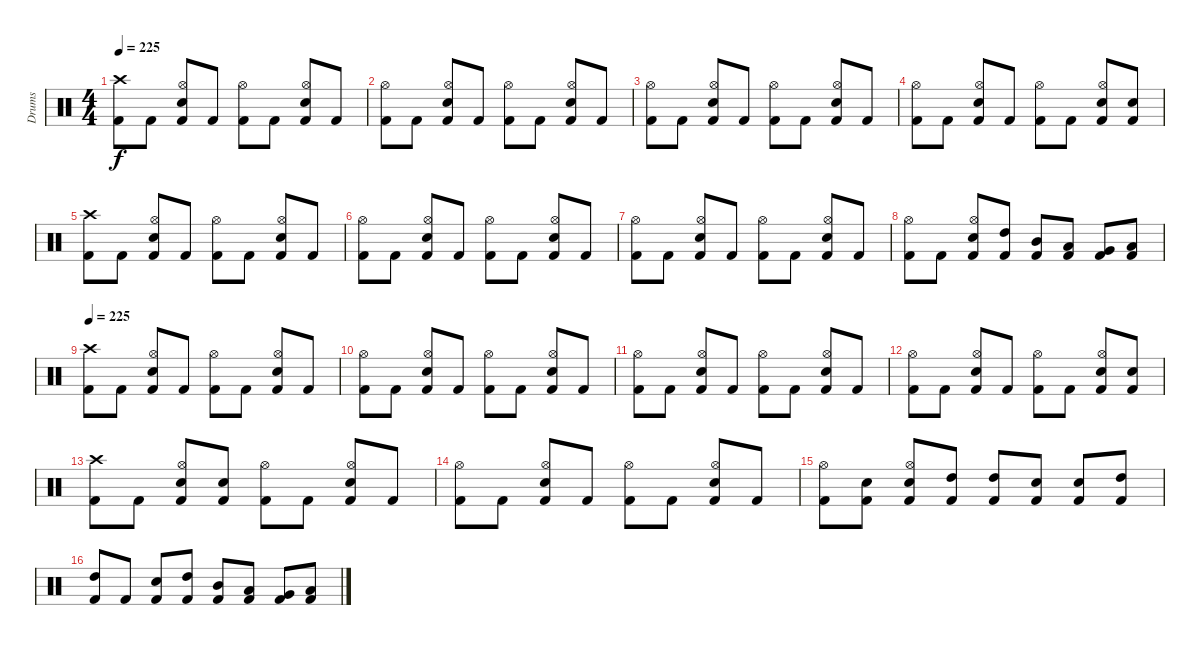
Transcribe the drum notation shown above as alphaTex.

\track ("Drums" "Drums") {instrument percussion}
\staff {score}
\articulation defaults
\ts (4 4)
\tempo 225
\clef neutral
\ks c
("Crash high (hit)" "Kick (hit) 2").8{dy f} "Kick (hit) 2".8 ("Hi-Hat (open)" "Electric Snare (hit)" "Kick (hit) 2").8 "Kick (hit) 2".8 ("Hi-Hat (open)" "Kick (hit) 2").8 "Kick (hit) 2".8 ("Hi-Hat (open)" "Electric Snare (hit)" "Kick (hit) 2").8 "Kick (hit) 2".8 |
("Hi-Hat (open)" "Kick (hit) 2").8 "Kick (hit) 2".8 ("Hi-Hat (open)" "Electric Snare (hit)" "Kick (hit) 2").8 "Kick (hit) 2".8 ("Hi-Hat (open)" "Kick (hit) 2").8 "Kick (hit) 2".8 ("Hi-Hat (open)" "Electric Snare (hit)" "Kick (hit) 2").8 "Kick (hit) 2".8 |
("Hi-Hat (open)" "Kick (hit) 2").8 "Kick (hit) 2".8 ("Hi-Hat (open)" "Electric Snare (hit)" "Kick (hit) 2").8 "Kick (hit) 2".8 ("Hi-Hat (open)" "Kick (hit) 2").8 "Kick (hit) 2".8 ("Hi-Hat (open)" "Electric Snare (hit)" "Kick (hit) 2").8 "Kick (hit) 2".8 |
("Hi-Hat (open)" "Kick (hit) 2").8 "Kick (hit) 2".8 ("Hi-Hat (open)" "Electric Snare (hit)" "Kick (hit) 2").8 "Kick (hit) 2".8 ("Hi-Hat (open)" "Kick (hit) 2").8 "Kick (hit) 2".8 ("Hi-Hat (open)" "Electric Snare (hit)" "Kick (hit) 2").8 ("Electric Snare (hit)" "Kick (hit) 2").8 |
("Crash high (hit)" "Kick (hit) 2").8 "Kick (hit) 2".8 ("Hi-Hat (open)" "Electric Snare (hit)" "Kick (hit) 2").8 "Kick (hit) 2".8 ("Hi-Hat (open)" "Kick (hit) 2").8 "Kick (hit) 2".8 ("Hi-Hat (open)" "Electric Snare (hit)" "Kick (hit) 2").8 "Kick (hit) 2".8 |
("Hi-Hat (open)" "Kick (hit) 2").8 "Kick (hit) 2".8 ("Hi-Hat (open)" "Electric Snare (hit)" "Kick (hit) 2").8 "Kick (hit) 2".8 ("Hi-Hat (open)" "Kick (hit) 2").8 "Kick (hit) 2".8 ("Hi-Hat (open)" "Electric Snare (hit)" "Kick (hit) 2").8 "Kick (hit) 2".8 |
("Hi-Hat (open)" "Kick (hit) 2").8 "Kick (hit) 2".8 ("Hi-Hat (open)" "Electric Snare (hit)" "Kick (hit) 2").8 "Kick (hit) 2".8 ("Hi-Hat (open)" "Kick (hit) 2").8 "Kick (hit) 2".8 ("Hi-Hat (open)" "Electric Snare (hit)" "Kick (hit) 2").8 "Kick (hit) 2".8 |
("Hi-Hat (open)" "Kick (hit) 2").8 "Kick (hit) 2".8 ("Hi-Hat (open)" "Electric Snare (hit)" "Kick (hit) 2").8 ("High Tom (hit)" "Kick (hit) 2").8 ("Mid Tom (hit)" "Kick (hit) 2").8 ("Low Tom (hit)" "Kick (hit) 2").8 ("Very Low Tom (hit)" "Kick (hit) 2").8 ("Low Floor Tom (hit)" "Kick (hit) 2").8 |
\tempo 225
("Crash high (hit)" "Kick (hit) 2").8 "Kick (hit) 2".8 ("Hi-Hat (open)" "Electric Snare (hit)" "Kick (hit) 2").8 "Kick (hit) 2".8 ("Hi-Hat (open)" "Kick (hit) 2").8 "Kick (hit) 2".8 ("Hi-Hat (open)" "Electric Snare (hit)" "Kick (hit) 2").8 "Kick (hit) 2".8 |
("Hi-Hat (open)" "Kick (hit) 2").8 "Kick (hit) 2".8 ("Hi-Hat (open)" "Electric Snare (hit)" "Kick (hit) 2").8 "Kick (hit) 2".8 ("Hi-Hat (open)" "Kick (hit) 2").8 "Kick (hit) 2".8 ("Hi-Hat (open)" "Electric Snare (hit)" "Kick (hit) 2").8 "Kick (hit) 2".8 |
("Hi-Hat (open)" "Kick (hit) 2").8 "Kick (hit) 2".8 ("Hi-Hat (open)" "Electric Snare (hit)" "Kick (hit) 2").8 "Kick (hit) 2".8 ("Hi-Hat (open)" "Kick (hit) 2").8 "Kick (hit) 2".8 ("Hi-Hat (open)" "Electric Snare (hit)" "Kick (hit) 2").8 "Kick (hit) 2".8 |
("Hi-Hat (open)" "Kick (hit) 2").8 "Kick (hit) 2".8 ("Hi-Hat (open)" "Electric Snare (hit)" "Kick (hit) 2").8 "Kick (hit) 2".8 ("Hi-Hat (open)" "Kick (hit) 2").8 "Kick (hit) 2".8 ("Hi-Hat (open)" "Electric Snare (hit)" "Kick (hit) 2").8 ("Electric Snare (hit)" "Kick (hit) 2").8 |
("Crash high (hit)" "Kick (hit) 2").8 "Kick (hit) 2".8 ("Hi-Hat (open)" "Electric Snare (hit)" "Kick (hit) 2").8 ("Electric Snare (hit)" "Kick (hit) 2").8 ("Hi-Hat (open)" "Kick (hit) 2").8 "Kick (hit) 2".8 ("Hi-Hat (open)" "Electric Snare (hit)" "Kick (hit) 2").8 "Kick (hit) 2".8 |
("Hi-Hat (open)" "Kick (hit) 2").8 "Kick (hit) 2".8 ("Hi-Hat (open)" "Electric Snare (hit)" "Kick (hit) 2").8 "Kick (hit) 2".8 ("Hi-Hat (open)" "Kick (hit) 2").8 "Kick (hit) 2".8 ("Hi-Hat (open)" "Electric Snare (hit)" "Kick (hit) 2").8 "Kick (hit) 2".8 |
("Hi-Hat (open)" "Kick (hit) 2").8 ("Electric Snare (hit)" "Kick (hit) 2").8 ("Hi-Hat (open)" "Electric Snare (hit)" "Kick (hit) 2").8 ("High Tom (hit)" "Kick (hit) 2").8 ("High Tom (hit)" "Kick (hit) 2").8 ("Electric Snare (hit)" "Kick (hit) 2").8 ("Electric Snare (hit)" "Kick (hit) 2").8 ("High Tom (hit)" "Kick (hit) 2").8 |
("High Tom (hit)" "Kick (hit) 2").8 "Kick (hit) 2".8 ("Electric Snare (hit)" "Kick (hit) 2").8 ("High Tom (hit)" "Kick (hit) 2").8 ("Mid Tom (hit)" "Kick (hit) 2").8 ("Low Tom (hit)" "Kick (hit) 2").8 ("Very Low Tom (hit)" "Kick (hit) 2").8 ("Low Floor Tom (hit)" "Kick (hit) 2").8
